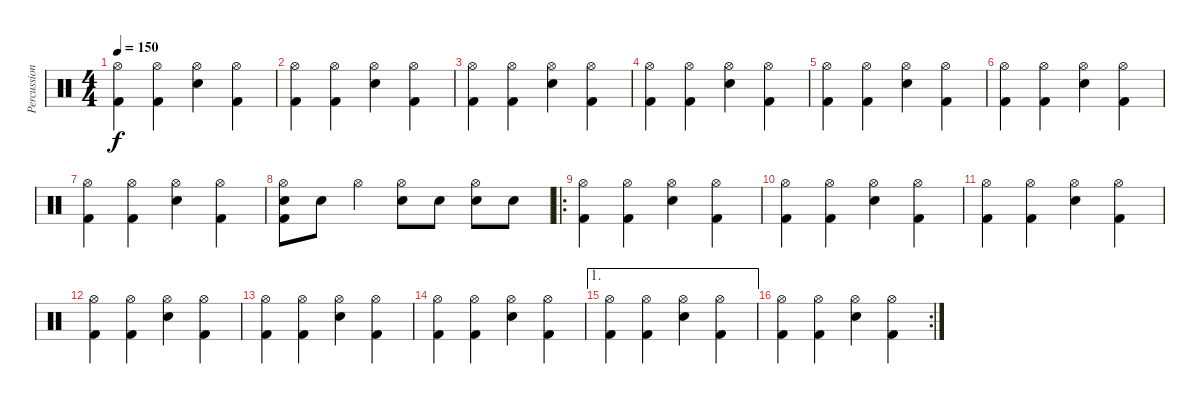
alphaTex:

\track ("Percussions" "Percussion") {instrument percussion}
\staff {score}
\articulation defaults
\ts (4 4)
\tempo 150
\clef neutral
\ks c
("Hi-Hat (open)" "Kick (hit) 2").4{dy f} ("Hi-Hat (open)" "Kick (hit) 2").4 ("Hi-Hat (open)" "Electric Snare (hit)").4 ("Hi-Hat (open)" "Kick (hit) 2").4 |
("Hi-Hat (open)" "Kick (hit) 2").4 ("Hi-Hat (open)" "Kick (hit) 2").4 ("Hi-Hat (open)" "Electric Snare (hit)").4 ("Hi-Hat (open)" "Kick (hit) 2").4 |
("Hi-Hat (open)" "Kick (hit) 2").4 ("Hi-Hat (open)" "Kick (hit) 2").4 ("Hi-Hat (open)" "Electric Snare (hit)").4 ("Hi-Hat (open)" "Kick (hit) 2").4 |
("Hi-Hat (open)" "Kick (hit) 2").4 ("Hi-Hat (open)" "Kick (hit) 2").4 ("Hi-Hat (open)" "Electric Snare (hit)").4 ("Hi-Hat (open)" "Kick (hit) 2").4 |
("Hi-Hat (open)" "Kick (hit) 2").4 ("Hi-Hat (open)" "Kick (hit) 2").4 ("Hi-Hat (open)" "Electric Snare (hit)").4 ("Hi-Hat (open)" "Kick (hit) 2").4 |
("Hi-Hat (open)" "Kick (hit) 2").4 ("Hi-Hat (open)" "Kick (hit) 2").4 ("Hi-Hat (open)" "Electric Snare (hit)").4 ("Hi-Hat (open)" "Kick (hit) 2").4 |
("Hi-Hat (open)" "Kick (hit) 2").4 ("Hi-Hat (open)" "Kick (hit) 2").4 ("Hi-Hat (open)" "Electric Snare (hit)").4 ("Hi-Hat (open)" "Kick (hit) 2").4 |
("Hi-Hat (open)" "Snare (hit) 2" "Kick (hit) 2").8 "Snare (hit) 2".8 "Hi-Hat (open)".4 ("Hi-Hat (open)" "Snare (hit) 2").8 "Snare (hit) 2".8 ("Hi-Hat (open)" "Snare (hit) 2").8 "Snare (hit) 2".8 |
\ro
("Hi-Hat (open)" "Kick (hit) 2").4 ("Hi-Hat (open)" "Kick (hit) 2").4 ("Hi-Hat (open)" "Electric Snare (hit)").4 ("Hi-Hat (open)" "Kick (hit) 2").4 |
("Hi-Hat (open)" "Kick (hit) 2").4 ("Hi-Hat (open)" "Kick (hit) 2").4 ("Hi-Hat (open)" "Electric Snare (hit)").4 ("Hi-Hat (open)" "Kick (hit) 2").4 |
("Hi-Hat (open)" "Kick (hit) 2").4 ("Hi-Hat (open)" "Kick (hit) 2").4 ("Hi-Hat (open)" "Electric Snare (hit)").4 ("Hi-Hat (open)" "Kick (hit) 2").4 |
("Hi-Hat (open)" "Kick (hit) 2").4 ("Hi-Hat (open)" "Kick (hit) 2").4 ("Hi-Hat (open)" "Electric Snare (hit)").4 ("Hi-Hat (open)" "Kick (hit) 2").4 |
("Hi-Hat (open)" "Kick (hit) 2").4 ("Hi-Hat (open)" "Kick (hit) 2").4 ("Hi-Hat (open)" "Electric Snare (hit)").4 ("Hi-Hat (open)" "Kick (hit) 2").4 |
("Hi-Hat (open)" "Kick (hit) 2").4 ("Hi-Hat (open)" "Kick (hit) 2").4 ("Hi-Hat (open)" "Electric Snare (hit)").4 ("Hi-Hat (open)" "Kick (hit) 2").4 |
\ae 1
("Hi-Hat (open)" "Kick (hit) 2").4 ("Hi-Hat (open)" "Kick (hit) 2").4 ("Hi-Hat (open)" "Electric Snare (hit)").4 ("Hi-Hat (open)" "Kick (hit) 2").4 |
\rc 2
("Hi-Hat (open)" "Kick (hit) 2").4 ("Hi-Hat (open)" "Kick (hit) 2").4 ("Hi-Hat (open)" "Electric Snare (hit)").4 ("Hi-Hat (open)" "Kick (hit) 2").4
